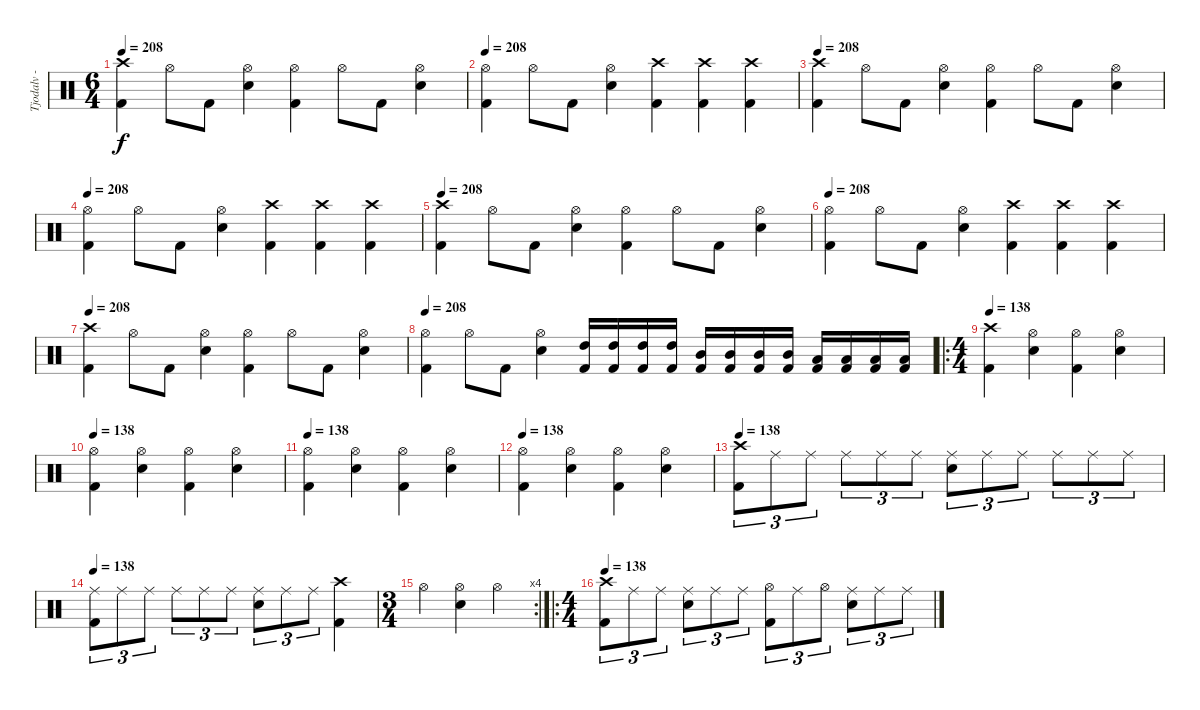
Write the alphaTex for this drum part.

\track ("Tjodalv - Drums" "Tjodalv - ") {instrument percussion}
\staff {score}
\articulation defaults
\ts (6 4)
\tempo 208
\clef neutral
\ks c
("Kick (hit) 2" "Crash high (hit)").4{dy f} "Hi-Hat (open)".8 "Kick (hit) 2".8 ("Snare (hit) 2" "Hi-Hat (open)").4 ("Kick (hit) 2" "Hi-Hat (open)").4 "Hi-Hat (open)".8 "Kick (hit) 2".8 ("Snare (hit) 2" "Hi-Hat (open)").4 |
\tempo 208
("Kick (hit) 2" "Hi-Hat (open)").4 "Hi-Hat (open)".8 "Kick (hit) 2".8 ("Snare (hit) 2" "Hi-Hat (open)").4 ("Kick (hit) 2" "Crash high (hit)").4 ("Kick (hit) 2" "Crash high (hit)").4 ("Kick (hit) 2" "Crash high (hit)").4 |
\tempo 208
("Kick (hit) 2" "Crash high (hit)").4 "Hi-Hat (open)".8 "Kick (hit) 2".8 ("Snare (hit) 2" "Hi-Hat (open)").4 ("Kick (hit) 2" "Hi-Hat (open)").4 "Hi-Hat (open)".8 "Kick (hit) 2".8 ("Snare (hit) 2" "Hi-Hat (open)").4 |
\tempo 208
("Kick (hit) 2" "Hi-Hat (open)").4 "Hi-Hat (open)".8 "Kick (hit) 2".8 ("Snare (hit) 2" "Hi-Hat (open)").4 ("Kick (hit) 2" "Crash high (hit)").4 ("Kick (hit) 2" "Crash high (hit)").4 ("Kick (hit) 2" "Crash high (hit)").4 |
\tempo 208
("Kick (hit) 2" "Crash high (hit)").4 "Hi-Hat (open)".8 "Kick (hit) 2".8 ("Snare (hit) 2" "Hi-Hat (open)").4 ("Kick (hit) 2" "Hi-Hat (open)").4 "Hi-Hat (open)".8 "Kick (hit) 2".8 ("Snare (hit) 2" "Hi-Hat (open)").4 |
\tempo 208
("Kick (hit) 2" "Hi-Hat (open)").4 "Hi-Hat (open)".8 "Kick (hit) 2".8 ("Snare (hit) 2" "Hi-Hat (open)").4 ("Kick (hit) 2" "Crash high (hit)").4 ("Kick (hit) 2" "Crash high (hit)").4 ("Kick (hit) 2" "Crash high (hit)").4 |
\tempo 208
("Kick (hit) 2" "Crash high (hit)").4 "Hi-Hat (open)".8 "Kick (hit) 2".8 ("Snare (hit) 2" "Hi-Hat (open)").4 ("Kick (hit) 2" "Hi-Hat (open)").4 "Hi-Hat (open)".8 "Kick (hit) 2".8 ("Snare (hit) 2" "Hi-Hat (open)").4 |
\tempo 208
("Kick (hit) 2" "Hi-Hat (open)").4 "Hi-Hat (open)".8 "Kick (hit) 2".8 ("Snare (hit) 2" "Hi-Hat (open)").4 ("Kick (hit) 2" "High Tom (hit)").16 ("Kick (hit) 2" "High Tom (hit)").16 ("Kick (hit) 2" "High Tom (hit)").16 ("Kick (hit) 2" "High Tom (hit)").16 ("Kick (hit) 2" "Mid Tom (hit)").16 ("Kick (hit) 2" "Mid Tom (hit)").16 ("Kick (hit) 2" "Mid Tom (hit)").16 ("Kick (hit) 2" "Mid Tom (hit)").16 ("Kick (hit) 2" "Low Tom (hit)").16 ("Kick (hit) 2" "Low Tom (hit)").16 ("Kick (hit) 2" "Low Tom (hit)").16 ("Kick (hit) 2" "Low Tom (hit)").16 |
\ro
\ts (4 4)
\tempo 138
("Kick (hit) 2" "Crash high (hit)").4 ("Snare (hit) 2" "Hi-Hat (open)").4 ("Kick (hit) 2" "Hi-Hat (open)").4 ("Snare (hit) 2" "Hi-Hat (open)").4 |
\tempo 138
("Kick (hit) 2" "Hi-Hat (open)").4 ("Snare (hit) 2" "Hi-Hat (open)").4 ("Kick (hit) 2" "Hi-Hat (open)").4 ("Snare (hit) 2" "Hi-Hat (open)").4 |
\tempo 138
("Kick (hit) 2" "Hi-Hat (open)").4 ("Snare (hit) 2" "Hi-Hat (open)").4 ("Kick (hit) 2" "Hi-Hat (open)").4 ("Snare (hit) 2" "Hi-Hat (open)").4 |
\tempo 138
("Kick (hit) 2" "Hi-Hat (open)").4 ("Snare (hit) 2" "Hi-Hat (open)").4 ("Kick (hit) 2" "Hi-Hat (open)").4 ("Snare (hit) 2" "Hi-Hat (open)").4 |
\tempo 138
("Kick (hit) 2" "Crash high (hit)").8{tu (3 2)} "Ride (middle)".8{tu (3 2)} "Ride (middle)".8{tu (3 2)} "Ride (middle)".8{tu (3 2)} "Ride (middle)".8{tu (3 2)} "Ride (middle)".8{tu (3 2)} ("Snare (hit) 2" "Ride (middle)").8{tu (3 2)} "Ride (middle)".8{tu (3 2)} "Ride (middle)".8{tu (3 2)} "Ride (middle)".8{tu (3 2)} "Ride (middle)".8{tu (3 2)} "Ride (middle)".8{tu (3 2)} |
\tempo 138
("Kick (hit) 2" "Ride (middle)").8{tu (3 2)} "Ride (middle)".8{tu (3 2)} "Ride (middle)".8{tu (3 2)} "Ride (middle)".8{tu (3 2)} "Ride (middle)".8{tu (3 2)} "Ride (middle)".8{tu (3 2)} ("Snare (hit) 2" "Ride (middle)").8{tu (3 2)} "Ride (middle)".8{tu (3 2)} "Ride (middle)".8{tu (3 2)} ("Kick (hit) 2" "Crash high (hit)").4 |
\rc 4
\ts (3 4)
"Hi-Hat (open)".4 ("Snare (hit) 2" "Hi-Hat (open)").4 "Hi-Hat (open)".4 |
\ro
\ts (4 4)
\tempo 138
("Kick (hit) 2" "Crash high (hit)").8{tu (3 2)} "Ride (middle)".8{tu (3 2)} "Ride (middle)".8{tu (3 2)} ("Snare (hit) 2" "Ride (middle)").8{tu (3 2)} "Ride (middle)".8{tu (3 2)} "Ride (middle)".8{tu (3 2)} ("Kick (hit) 2" "Hi-Hat (open)").8{tu (3 2)} "Ride (middle)".8{tu (3 2)} "Hi-Hat (open)".8{tu (3 2)} ("Snare (hit) 2" "Ride (middle)").8{tu (3 2)} "Ride (middle)".8{tu (3 2)} "Ride (middle)".8{tu (3 2)}
